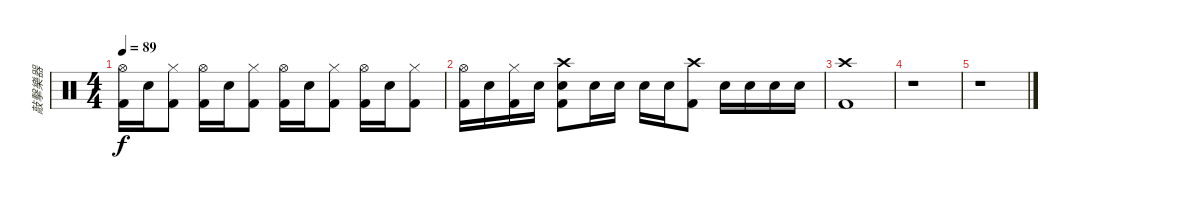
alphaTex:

\track ("敲擊樂器" "敲擊樂器") {instrument percussion}
\staff {score}
\articulation defaults
\ts (4 4)
\tempo 89
\clef neutral
\ks c
("Hi-Hat (open)" "Kick (hit) 2").16{dy f} "Snare (hit) 2".16 ("Hi-Hat (closed)" "Kick (hit) 2").8 ("Hi-Hat (open)" "Kick (hit) 2").16 "Snare (hit) 2".16 ("Hi-Hat (closed)" "Kick (hit) 2").8 ("Hi-Hat (open)" "Kick (hit) 2").16 "Snare (hit) 2".16 ("Hi-Hat (closed)" "Kick (hit) 2").8 ("Hi-Hat (open)" "Kick (hit) 2").16 "Snare (hit) 2".16 ("Hi-Hat (closed)" "Kick (hit) 2").8 |
("Hi-Hat (open)" "Kick (hit) 2").16 "Snare (hit) 2".16 ("Hi-Hat (closed)" "Kick (hit) 2").16 "Snare (hit) 2".16 ("Crash high (hit)" "Snare (hit) 2" "Kick (hit) 2").8 "Snare (hit) 2".16 "Snare (hit) 2".16 "Snare (hit) 2".16 "Snare (hit) 2".16 ("Crash high (hit)" "Kick (hit) 2").8 "Snare (hit) 2".16 "Snare (hit) 2".16 "Snare (hit) 2".16 "Snare (hit) 2".16 |
("Crash high (hit)" "Kick (hit) 2").1 |
r.1 |
r.1
